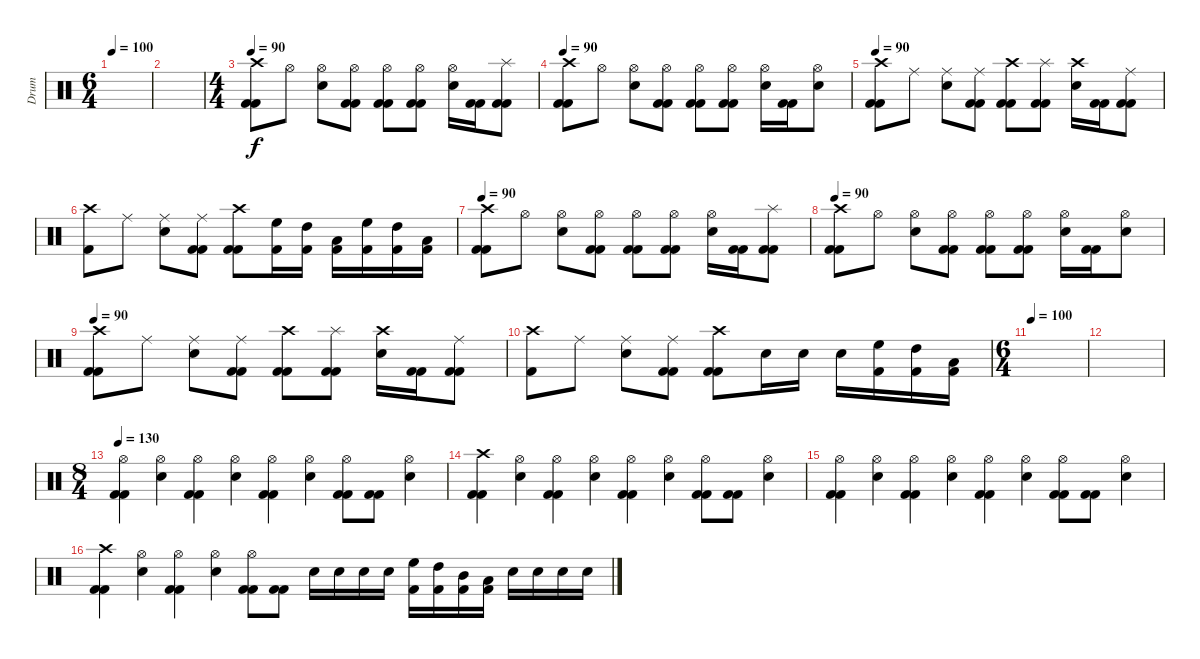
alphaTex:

\track ("Drum" "Drum") {instrument percussion}
\staff {score}
\articulation defaults
\ts (6 4)
\tempo 100
\clef neutral
\ks c
|
|
\ts (4 4)
\tempo 90
("Crash high (hit)" "Kick (hit) 2" "Kick (hit) 2").8 "Hi-Hat (open)".8 ("Hi-Hat (open)" "Electric Snare (hit)").8 ("Hi-Hat (open)" "Kick (hit) 2" "Kick (hit) 2").8 ("Hi-Hat (open)" "Kick (hit) 2" "Kick (hit) 2").8 ("Hi-Hat (open)" "Kick (hit) 2" "Kick (hit) 2").8 ("Hi-Hat (open)" "Electric Snare (hit)").16 ("Kick (hit) 2" "Kick (hit) 2").16 ("Splash (hit)" "Kick (hit) 2" "Kick (hit) 2").8 |
\tempo 90
("Crash high (hit)" "Kick (hit) 2" "Kick (hit) 2").8 "Hi-Hat (open)".8 ("Hi-Hat (open)" "Electric Snare (hit)").8 ("Hi-Hat (open)" "Kick (hit) 2" "Kick (hit) 2").8 ("Hi-Hat (open)" "Kick (hit) 2" "Kick (hit) 2").8 ("Hi-Hat (open)" "Kick (hit) 2" "Kick (hit) 2").8 ("Hi-Hat (open)" "Electric Snare (hit)").16 ("Kick (hit) 2" "Kick (hit) 2").16 ("Hi-Hat (open)" "Electric Snare (hit)").8 |
\tempo 90
("Crash high (hit)" "Kick (hit) 2" "Kick (hit) 2").8 "Ride (middle)".8 ("Ride (middle)" "Electric Snare (hit)").8 ("Ride (middle)" "Kick (hit) 2" "Kick (hit) 2").8 ("Crash high (hit)" "Kick (hit) 2" "Kick (hit) 2").8 ("Splash (hit)" "Kick (hit) 2" "Kick (hit) 2").8 ("Crash high (hit)" "Electric Snare (hit)").16 ("Kick (hit) 2" "Kick (hit) 2").16 ("Ride (middle)" "Kick (hit) 2" "Kick (hit) 2").8 |
("Crash high (hit)" "Kick (hit) 2").8 "Ride (middle)".8 ("Ride (middle)" "Electric Snare (hit)").8 ("Ride (middle)" "Kick (hit) 2" "Kick (hit) 2").8 ("Crash high (hit)" "Kick (hit) 2" "Kick (hit) 2").8 ("High Floor Tom (hit)" "Kick (hit) 2").16 ("High Tom (hit)" "Kick (hit) 2").16 ("Low Tom (hit)" "Kick (hit) 2").16 ("High Floor Tom (hit)" "Kick (hit) 2").16 ("High Tom (hit)" "Kick (hit) 2").16 ("Low Tom (hit)" "Kick (hit) 2").16 |
\tempo 90
("Crash high (hit)" "Kick (hit) 2" "Kick (hit) 2").8 "Hi-Hat (open)".8 ("Hi-Hat (open)" "Electric Snare (hit)").8 ("Hi-Hat (open)" "Kick (hit) 2" "Kick (hit) 2").8 ("Hi-Hat (open)" "Kick (hit) 2" "Kick (hit) 2").8 ("Hi-Hat (open)" "Kick (hit) 2" "Kick (hit) 2").8 ("Hi-Hat (open)" "Electric Snare (hit)").16 ("Kick (hit) 2" "Kick (hit) 2").16 ("Splash (hit)" "Kick (hit) 2" "Kick (hit) 2").8 |
\tempo 90
("Crash high (hit)" "Kick (hit) 2" "Kick (hit) 2").8 "Hi-Hat (open)".8 ("Hi-Hat (open)" "Electric Snare (hit)").8 ("Hi-Hat (open)" "Kick (hit) 2" "Kick (hit) 2").8 ("Hi-Hat (open)" "Kick (hit) 2" "Kick (hit) 2").8 ("Hi-Hat (open)" "Kick (hit) 2" "Kick (hit) 2").8 ("Hi-Hat (open)" "Electric Snare (hit)").16 ("Kick (hit) 2" "Kick (hit) 2").16 ("Hi-Hat (open)" "Electric Snare (hit)").8 |
\tempo 90
("Crash high (hit)" "Kick (hit) 2" "Kick (hit) 2").8 "Ride (middle)".8 ("Ride (middle)" "Electric Snare (hit)").8 ("Ride (middle)" "Kick (hit) 2" "Kick (hit) 2").8 ("Crash high (hit)" "Kick (hit) 2" "Kick (hit) 2").8 ("Splash (hit)" "Kick (hit) 2" "Kick (hit) 2").8 ("Crash high (hit)" "Electric Snare (hit)").16 ("Kick (hit) 2" "Kick (hit) 2").16 ("Ride (middle)" "Kick (hit) 2" "Kick (hit) 2").8 |
("Crash high (hit)" "Kick (hit) 2").8 "Ride (middle)".8 ("Ride (middle)" "Electric Snare (hit)").8 ("Ride (middle)" "Kick (hit) 2" "Kick (hit) 2").8 ("Crash high (hit)" "Kick (hit) 2" "Kick (hit) 2").8 "Electric Snare (hit)".16 "Electric Snare (hit)".16 "Electric Snare (hit)".16 ("High Floor Tom (hit)" "Kick (hit) 2").16 ("High Tom (hit)" "Kick (hit) 2").16 ("Low Tom (hit)" "Kick (hit) 2").16 |
\ts (6 4)
\tempo 100
|
|
\ts (8 4)
\tempo 130
("Hi-Hat (open)" "Kick (hit) 2" "Kick (hit) 2").4 ("Hi-Hat (open)" "Electric Snare (hit)").4 ("Hi-Hat (open)" "Kick (hit) 2" "Kick (hit) 2").4 ("Hi-Hat (open)" "Electric Snare (hit)").4 ("Hi-Hat (open)" "Kick (hit) 2" "Kick (hit) 2").4 ("Hi-Hat (open)" "Electric Snare (hit)").4 ("Hi-Hat (open)" "Kick (hit) 2" "Kick (hit) 2").8 ("Kick (hit) 2" "Kick (hit) 2").8 ("Hi-Hat (open)" "Electric Snare (hit)").4 |
("Crash high (hit)" "Kick (hit) 2" "Kick (hit) 2").4 ("Hi-Hat (open)" "Electric Snare (hit)").4 ("Hi-Hat (open)" "Kick (hit) 2" "Kick (hit) 2").4 ("Hi-Hat (open)" "Electric Snare (hit)").4 ("Hi-Hat (open)" "Kick (hit) 2" "Kick (hit) 2").4 ("Hi-Hat (open)" "Electric Snare (hit)").4 ("Hi-Hat (open)" "Kick (hit) 2" "Kick (hit) 2").8 ("Kick (hit) 2" "Kick (hit) 2").8 ("Hi-Hat (open)" "Electric Snare (hit)").4 |
("Hi-Hat (open)" "Kick (hit) 2" "Kick (hit) 2").4 ("Hi-Hat (open)" "Electric Snare (hit)").4 ("Hi-Hat (open)" "Kick (hit) 2" "Kick (hit) 2").4 ("Hi-Hat (open)" "Electric Snare (hit)").4 ("Hi-Hat (open)" "Kick (hit) 2" "Kick (hit) 2").4 ("Hi-Hat (open)" "Electric Snare (hit)").4 ("Hi-Hat (open)" "Kick (hit) 2" "Kick (hit) 2").8 ("Kick (hit) 2" "Kick (hit) 2").8 ("Hi-Hat (open)" "Electric Snare (hit)").4 |
("Crash high (hit)" "Kick (hit) 2" "Kick (hit) 2").4 ("Hi-Hat (open)" "Electric Snare (hit)").4 ("Hi-Hat (open)" "Kick (hit) 2" "Kick (hit) 2").4 ("Hi-Hat (open)" "Electric Snare (hit)").4 ("Hi-Hat (open)" "Kick (hit) 2" "Kick (hit) 2").8 ("Kick (hit) 2" "Kick (hit) 2").8 "Electric Snare (hit)".16 "Electric Snare (hit)".16 "Electric Snare (hit)".16 "Electric Snare (hit)".16 ("Kick (hit) 2" "High Floor Tom (hit)").16 ("Kick (hit) 2" "High Tom (hit)").16 ("Kick (hit) 2" "Mid Tom (hit)").16 ("Kick (hit) 2" "Low Tom (hit)").16 "Electric Snare (hit)".16 "Electric Snare (hit)".16 "Electric Snare (hit)".16 "Electric Snare (hit)".16
